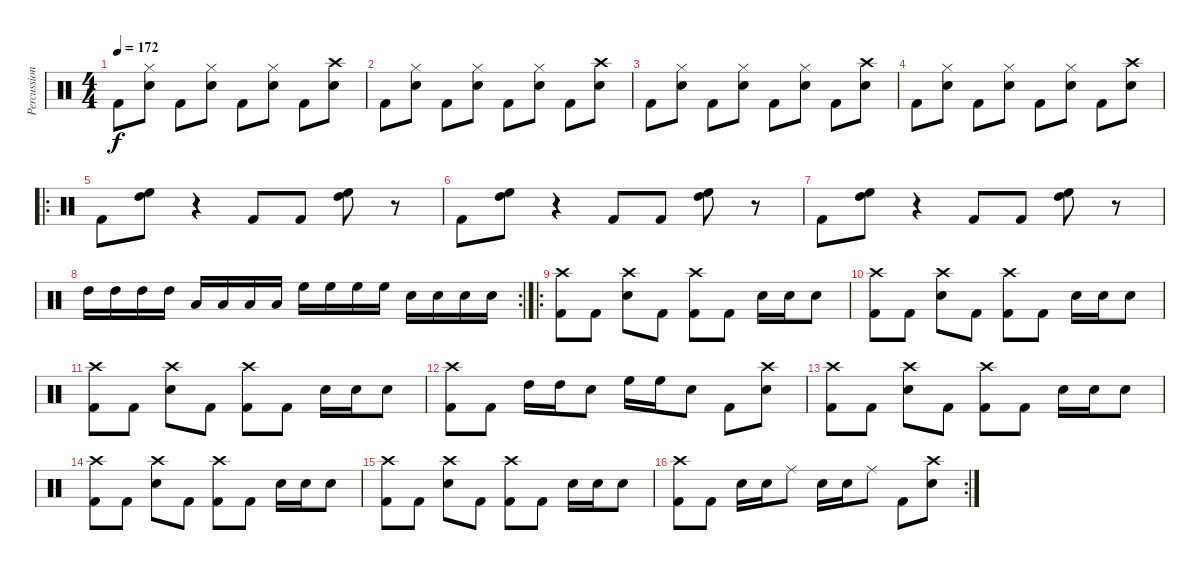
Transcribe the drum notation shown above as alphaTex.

\track ("Percussion" "Percussion") {instrument percussion}
\staff {score}
\articulation defaults
\ts (4 4)
\tempo 172
\clef neutral
\ks c "Kick (hit) 2".8{dy f}
("Hi-Hat (closed)" "Snare (hit) 2").8 "Kick (hit) 2".8 ("Hi-Hat (closed)" "Snare (hit) 2").8 "Kick (hit) 2".8 ("Hi-Hat (closed)" "Snare (hit) 2").8 "Kick (hit) 2".8 ("Crash high (hit)" "Snare (hit) 2").8 |
"Kick (hit) 2".8 ("Hi-Hat (closed)" "Snare (hit) 2").8 "Kick (hit) 2".8 ("Hi-Hat (closed)" "Snare (hit) 2").8 "Kick (hit) 2".8 ("Hi-Hat (closed)" "Snare (hit) 2").8 "Kick (hit) 2".8 ("Crash high (hit)" "Snare (hit) 2").8 |
"Kick (hit) 2".8 ("Hi-Hat (closed)" "Snare (hit) 2").8 "Kick (hit) 2".8 ("Hi-Hat (closed)" "Snare (hit) 2").8 "Kick (hit) 2".8 ("Hi-Hat (closed)" "Snare (hit) 2").8 "Kick (hit) 2".8 ("Crash high (hit)" "Snare (hit) 2").8 |
"Kick (hit) 2".8 ("Hi-Hat (closed)" "Snare (hit) 2").8 "Kick (hit) 2".8 ("Hi-Hat (closed)" "Snare (hit) 2").8 "Kick (hit) 2".8 ("Hi-Hat (closed)" "Snare (hit) 2").8 "Kick (hit) 2".8 ("Crash high (hit)" "Snare (hit) 2").8 |
\ro "Kick (hit) 2".8
("High Tom (hit)" "High Floor Tom (hit)").8 r.4 "Kick (hit) 2".8 "Kick (hit) 2".8 ("High Tom (hit)" "High Floor Tom (hit)").8 r.8 |
"Kick (hit) 2".8 ("High Tom (hit)" "High Floor Tom (hit)").8 r.4 "Kick (hit) 2".8 "Kick (hit) 2".8 ("High Tom (hit)" "High Floor Tom (hit)").8 r.8 |
"Kick (hit) 2".8 ("High Tom (hit)" "High Floor Tom (hit)").8 r.4 "Kick (hit) 2".8 "Kick (hit) 2".8 ("High Tom (hit)" "High Floor Tom (hit)").8 r.8 |
\rc 2 "High Tom (hit)".16 "High Tom (hit)".16 "High Tom (hit)".16 "High Tom (hit)".16 "Low Tom (hit)".16 "Low Tom (hit)".16 "Low Tom (hit)".16 "Low Tom (hit)".16 "High Floor Tom (hit)".16 "High Floor Tom (hit)".16 "High Floor Tom (hit)".16 "High Floor Tom (hit)".16 "Snare (hit) 2".16 "Snare (hit) 2".16 "Snare (hit) 2".16 "Snare (hit) 2".16
|
\ro
("Crash high (hit)" "Kick (hit) 2").8 "Kick (hit) 2".8 ("Crash high (hit)" "Snare (hit) 2").8 "Kick (hit) 2".8 ("Crash high (hit)" "Kick (hit) 2").8 "Kick (hit) 2".8 "Snare (hit) 2".16 "Snare (hit) 2".16 "Snare (hit) 2".8 |
("Crash high (hit)" "Kick (hit) 2").8 "Kick (hit) 2".8 ("Crash high (hit)" "Snare (hit) 2").8 "Kick (hit) 2".8 ("Crash high (hit)" "Kick (hit) 2").8 "Kick (hit) 2".8 "Snare (hit) 2".16 "Snare (hit) 2".16 "Snare (hit) 2".8 |
("Crash high (hit)" "Kick (hit) 2").8 "Kick (hit) 2".8 ("Crash high (hit)" "Snare (hit) 2").8 "Kick (hit) 2".8 ("Crash high (hit)" "Kick (hit) 2").8 "Kick (hit) 2".8 "Snare (hit) 2".16 "Snare (hit) 2".16 "Snare (hit) 2".8 |
("Crash high (hit)" "Kick (hit) 2").8 "Kick (hit) 2".8 "High Tom (hit)".16 "High Tom (hit)".16 "Snare (hit) 2".8 "High Floor Tom (hit)".16 "High Floor Tom (hit)".16 "Snare (hit) 2".8 "Kick (hit) 2".8 ("Crash high (hit)" "Snare (hit) 2").8 |
("Crash high (hit)" "Kick (hit) 2").8 "Kick (hit) 2".8 ("Crash high (hit)" "Snare (hit) 2").8 "Kick (hit) 2".8 ("Crash high (hit)" "Kick (hit) 2").8 "Kick (hit) 2".8 "Snare (hit) 2".16 "Snare (hit) 2".16 "Snare (hit) 2".8 |
("Crash high (hit)" "Kick (hit) 2").8 "Kick (hit) 2".8 ("Crash high (hit)" "Snare (hit) 2").8 "Kick (hit) 2".8 ("Crash high (hit)" "Kick (hit) 2").8 "Kick (hit) 2".8 "Snare (hit) 2".16 "Snare (hit) 2".16 "Snare (hit) 2".8 |
("Crash high (hit)" "Kick (hit) 2").8 "Kick (hit) 2".8 ("Crash high (hit)" "Snare (hit) 2").8 "Kick (hit) 2".8 ("Crash high (hit)" "Kick (hit) 2").8 "Kick (hit) 2".8 "Snare (hit) 2".16 "Snare (hit) 2".16 "Snare (hit) 2".8 |
\rc 2
("Crash high (hit)" "Kick (hit) 2").8 "Kick (hit) 2".8 "Snare (hit) 2".16 "Snare (hit) 2".16 "Ride (middle)".8 "Snare (hit) 2".16 "Snare (hit) 2".16 "Ride (middle)".8 "Kick (hit) 2".8 ("Crash high (hit)" "Snare (hit) 2").8
